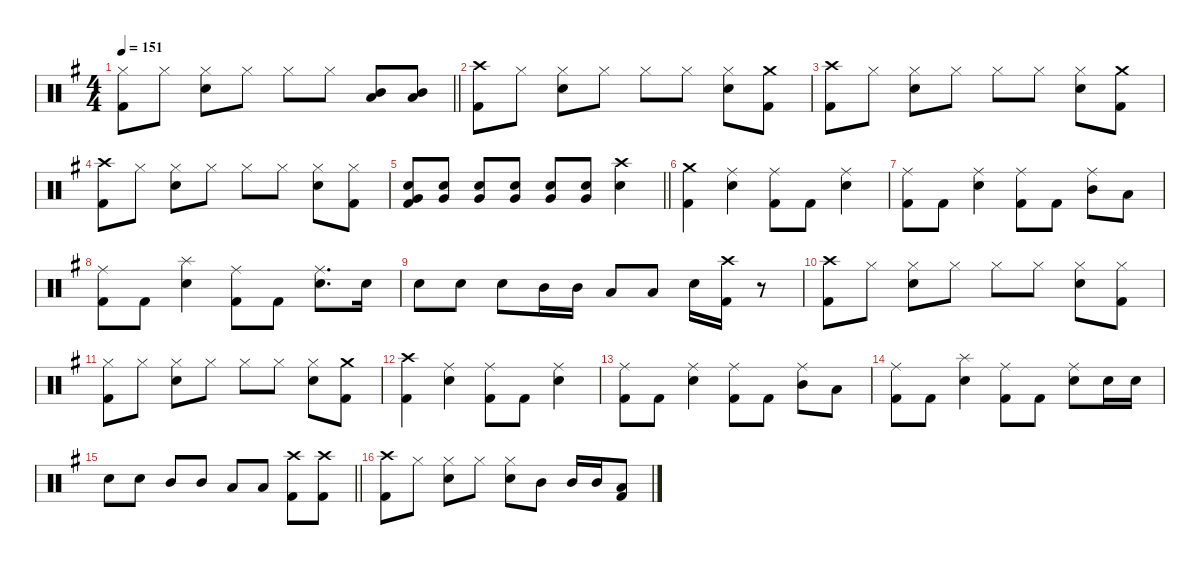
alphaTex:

\defaultSystemsLayout 4
\hideDynamics
\bracketExtendMode nobrackets
\singleTrackTrackNamePolicy hidden
\multiTrackTrackNamePolicy hidden
\otherSystemsTrackNameOrientation horizontal
\track ("Lars Ulrich" "drm.") {instrument percussion}
\staff {score}
\articulation defaults
\ts (4 4)
\tempo 151
\clef neutral
\barLineRight lightlight
\ks eminor
("Hi-Hat (closed)"{acc forcenatural} "Kick (hit) 2"{acc forcenatural}).8{dy f beam Down} "Hi-Hat (closed)"{acc forcenatural}.8{beam Down} ("Hi-Hat (closed)"{acc forcenatural} "Snare (hit) 2"{acc forcenatural}).8{beam Down} "Hi-Hat (closed)"{acc forcenatural}.8{beam Down} "Hi-Hat (closed)"{acc forcenatural}.8{beam Down} "Hi-Hat (closed)"{acc forcenatural}.8{beam Down} ("Low Tom (hit)"{acc forcenatural} "Mid Tom (hit)"{acc forcenatural}).8{beam Up} ("Low Tom (hit)"{acc forcenatural} "Mid Tom (hit)"{acc forcenatural}).8{beam Up} |
("Crash high (hit)"{acc forcenatural} "Kick (hit) 2"{acc forcenatural}).8{beam Down} "Hi-Hat (closed)"{acc forcenatural}.8{beam Down} ("Hi-Hat (closed)"{acc forcenatural} "Snare (hit) 2"{acc forcenatural}).8{beam Down} "Hi-Hat (closed)"{acc forcenatural}.8{beam Down} "Hi-Hat (closed)"{acc forcenatural}.8{beam Down} "Hi-Hat (closed)"{acc forcenatural}.8{beam Down} ("Hi-Hat (closed)"{acc forcenatural} "Snare (hit) 2"{acc forcenatural}).8{beam Down} ("Crash medium (hit)"{acc forcenatural} "Kick (hit) 2"{acc forcenatural}).8{beam Down} |
("Crash high (hit)"{acc forcenatural} "Kick (hit) 2"{acc forcenatural}).8{beam Down} "Hi-Hat (closed)"{acc forcenatural}.8{beam Down} ("Hi-Hat (closed)"{acc forcenatural} "Snare (hit) 2"{acc forcenatural}).8{beam Down} "Hi-Hat (closed)"{acc forcenatural}.8{beam Down} "Hi-Hat (closed)"{acc forcenatural}.8{beam Down} "Hi-Hat (closed)"{acc forcenatural}.8{beam Down} ("Hi-Hat (closed)"{acc forcenatural} "Snare (hit) 2"{acc forcenatural}).8{beam Down} ("Crash medium (hit)"{acc forcenatural} "Kick (hit) 2"{acc forcenatural}).8{beam Down} |
("Crash high (hit)"{acc forcenatural} "Kick (hit) 2"{acc forcenatural}).8{beam Down} "Hi-Hat (closed)"{acc forcenatural}.8{beam Down} ("Hi-Hat (closed)"{acc forcenatural} "Snare (hit) 2"{acc forcenatural}).8{beam Down} "Hi-Hat (closed)"{acc forcenatural}.8{beam Down} "Hi-Hat (closed)"{acc forcenatural}.8{beam Down} "Hi-Hat (closed)"{acc forcenatural}.8{beam Down} ("Hi-Hat (closed)"{acc forcenatural} "Snare (hit) 2"{acc forcenatural}).8{beam Down} ("Hi-Hat (closed)"{acc forcenatural} "Kick (hit) 2"{acc forcenatural}).8{beam Down} |
\barLineRight lightlight
("Very Low Tom (hit)"{acc forcenatural} "Snare (hit) 2"{acc forcenatural} "Kick (hit) 2"{acc forcenatural}).8{beam Up} ("Very Low Tom (hit)"{acc forcenatural} "Snare (hit) 2"{acc forcenatural}).8{beam Up} ("Very Low Tom (hit)"{acc forcenatural} "Snare (hit) 2"{acc forcenatural}).8{beam Up} ("Very Low Tom (hit)"{acc forcenatural} "Snare (hit) 2"{acc forcenatural}).8{beam Up} ("Very Low Tom (hit)"{acc forcenatural} "Snare (hit) 2"{acc forcenatural}).8{beam Up} ("Very Low Tom (hit)"{acc forcenatural} "Snare (hit) 2"{acc forcenatural}).8{beam Up} ("Crash high (hit)"{acc forcenatural} "Snare (hit) 2"{acc forcenatural}).4{beam Down} |
("Crash medium (hit)"{acc forcenatural} "Kick (hit) 2"{acc forcenatural}).4{beam Down} ("Ride (middle)"{acc forcenatural} "Snare (hit) 2"{acc forcenatural}).4{beam Down} ("Ride (middle)"{acc forcenatural} "Kick (hit) 2"{acc forcenatural}).8{beam Down} "Kick (hit) 2"{acc forcenatural}.8{beam Down} ("Ride (middle)"{acc forcenatural} "Snare (hit) 2"{acc forcenatural}).4{beam Down} |
("Ride (middle)"{acc forcenatural} "Kick (hit) 2"{acc forcenatural}).8{beam Down} "Kick (hit) 2"{acc forcenatural}.8{beam Down} ("Ride (middle)"{acc forcenatural} "Snare (hit) 2"{acc forcenatural}).4{beam Down} ("Ride (middle)"{acc forcenatural} "Kick (hit) 2"{acc forcenatural}).8{beam Down} "Kick (hit) 2"{acc forcenatural}.8{beam Down} ("Ride (middle)"{acc forcenatural} "Mid Tom (hit)"{acc forcenatural}).8{beam Down} "Low Tom (hit)"{acc forcenatural}.8{beam Down} |
("Ride (middle)"{acc forcenatural} "Kick (hit) 2"{acc forcenatural}).8{beam Down} "Kick (hit) 2"{acc forcenatural}.8{beam Down} ("Splash (hit)"{acc forcenatural} "Snare (hit) 2"{acc forcenatural}).4{beam Down} ("Ride (middle)"{acc forcenatural} "Kick (hit) 2"{acc forcenatural}).8{beam Down} "Kick (hit) 2"{acc forcenatural}.8{beam Down} ("Ride (middle)"{acc forcenatural} "Snare (hit) 2"{acc forcenatural}).8{d beam Down} "Snare (hit) 2"{acc forcenatural}.16{beam Down} |
"Snare (hit) 2"{acc forcenatural}.8{beam Down} "Snare (hit) 2"{acc forcenatural}.8{beam Down} "Snare (hit) 2"{acc forcenatural}.8{beam Down} "Mid Tom (hit)"{acc forcenatural}.16{beam Down} "Mid Tom (hit)"{acc forcenatural}.16{beam Down} "Low Tom (hit)"{acc forcenatural}.8{beam Up} "Low Tom (hit)"{acc forcenatural}.8{beam Up} "Snare (hit) 2"{acc forcenatural}.16{beam Down} ("Crash high (hit)"{acc forcenatural} "Kick (hit) 2"{acc forcenatural}).16{beam Down} r.8{beam Down} |
("Crash high (hit)"{acc forcenatural} "Kick (hit) 2"{acc forcenatural}).8{beam Down} "Hi-Hat (closed)"{acc forcenatural}.8{beam Down} ("Hi-Hat (closed)"{acc forcenatural} "Snare (hit) 2"{acc forcenatural}).8{beam Down} "Hi-Hat (closed)"{acc forcenatural}.8{beam Down} "Hi-Hat (closed)"{acc forcenatural}.8{beam Down} "Hi-Hat (closed)"{acc forcenatural}.8{beam Down} ("Hi-Hat (closed)"{acc forcenatural} "Snare (hit) 2"{acc forcenatural}).8{beam Down} ("Hi-Hat (closed)"{acc forcenatural} "Kick (hit) 2"{acc forcenatural}).8{beam Down} |
("Hi-Hat (closed)"{acc forcenatural} "Kick (hit) 2"{acc forcenatural}).8{beam Down} "Hi-Hat (closed)"{acc forcenatural}.8{beam Down} ("Hi-Hat (closed)"{acc forcenatural} "Snare (hit) 2"{acc forcenatural}).8{beam Down} "Hi-Hat (closed)"{acc forcenatural}.8{beam Down} "Hi-Hat (closed)"{acc forcenatural}.8{beam Down} "Hi-Hat (closed)"{acc forcenatural}.8{beam Down} ("Hi-Hat (closed)"{acc forcenatural} "Snare (hit) 2"{acc forcenatural}).8{beam Down} ("Crash medium (hit)"{acc forcenatural} "Kick (hit) 2"{acc forcenatural}).8{beam Down} |
("Crash high (hit)"{acc forcenatural} "Kick (hit) 2"{acc forcenatural}).4{beam Down} ("Ride (middle)"{acc forcenatural} "Snare (hit) 2"{acc forcenatural}).4{beam Down} ("Ride (middle)"{acc forcenatural} "Kick (hit) 2"{acc forcenatural}).8{beam Down} "Kick (hit) 2"{acc forcenatural}.8{beam Down} ("Ride (middle)"{acc forcenatural} "Snare (hit) 2"{acc forcenatural}).4{beam Down} |
("Ride (middle)"{acc forcenatural} "Kick (hit) 2"{acc forcenatural}).8{beam Down} "Kick (hit) 2"{acc forcenatural}.8{beam Down} ("Ride (middle)"{acc forcenatural} "Snare (hit) 2"{acc forcenatural}).4{beam Down} ("Ride (middle)"{acc forcenatural} "Kick (hit) 2"{acc forcenatural}).8{beam Down} "Kick (hit) 2"{acc forcenatural}.8{beam Down} ("Ride (middle)"{acc forcenatural} "Mid Tom (hit)"{acc forcenatural}).8{beam Down} "Low Tom (hit)"{acc forcenatural}.8{beam Down} |
("Ride (middle)"{acc forcenatural} "Kick (hit) 2"{acc forcenatural}).8{beam Down} "Kick (hit) 2"{acc forcenatural}.8{beam Down} ("Splash (hit)"{acc forcenatural} "Snare (hit) 2"{acc forcenatural}).4{beam Down} ("Ride (middle)"{acc forcenatural} "Kick (hit) 2"{acc forcenatural}).8{beam Down} "Kick (hit) 2"{acc forcenatural}.8{beam Down} ("Ride (middle)"{acc forcenatural} "Snare (hit) 2"{acc forcenatural}).8{beam Down} "Snare (hit) 2"{acc forcenatural}.16{beam Down} "Snare (hit) 2"{acc forcenatural}.16{beam Down} |
\barLineRight lightlight "Snare (hit) 2"{acc forcenatural}.8{beam Down} "Snare (hit) 2"{acc forcenatural}.8{beam Down} "Mid Tom (hit)"{acc forcenatural}.8{beam Up} "Mid Tom (hit)"{acc forcenatural}.8{beam Up} "Low Tom (hit)"{acc forcenatural}.8{beam Up} "Low Tom (hit)"{acc forcenatural}.8{beam Up}
("Crash high (hit)"{acc forcenatural} "Kick (hit) 2"{acc forcenatural}).8{beam Down} ("Crash high (hit)"{acc forcenatural} "Kick (hit) 2"{acc forcenatural}).8{beam Down} |
("Crash high (hit)"{acc forcenatural} "Kick (hit) 2"{acc forcenatural}).8{beam Down} "Hi-Hat (closed)"{acc forcenatural}.8{beam Down} ("Hi-Hat (closed)"{acc forcenatural} "Snare (hit) 2"{acc forcenatural}).8{beam Down} "Hi-Hat (closed)"{acc forcenatural}.8{beam Down} ("Hi-Hat (closed)"{acc forcenatural} "Snare (hit) 2"{acc forcenatural}).8{beam Down} "Mid Tom (hit)"{acc forcenatural}.8{beam Down} "Mid Tom (hit)"{acc forcenatural}.16{beam Up} "Mid Tom (hit)"{acc forcenatural}.16{beam Up} ("Low Tom (hit)"{acc forcenatural} "Kick (hit) 2"{acc forcenatural}).8{beam Up}
